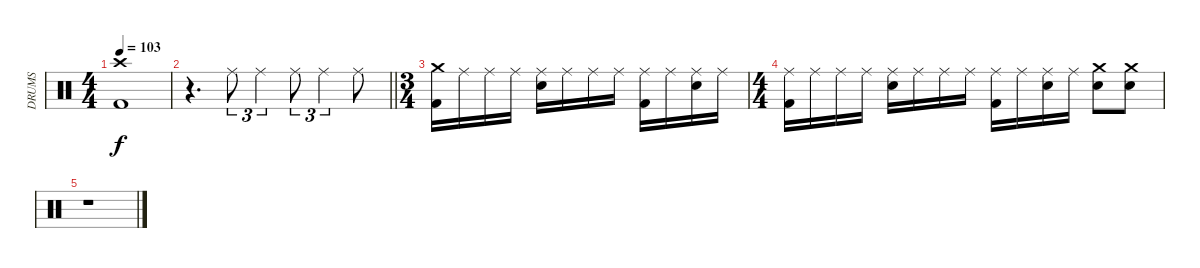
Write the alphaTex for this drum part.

\track ("DRUMS" "DRUMS") {instrument percussion}
\staff {score}
\articulation defaults
\ts (4 4)
\tempo 103
\clef neutral
\ks c
("Crash high (hit)" "Kick (hit) 2").1{dy f} |
\barLineRight lightlight
r.4{d} "Ride (middle)".8{tu (3 2)} "Ride (middle)".4{tu (3 2)} "Ride (middle)".8{tu (3 2)} "Ride (middle)".4{tu (3 2)} "Ride (middle)".8 |
\ts (3 4)
("Crash medium (hit)" "Kick (hit) 2").16 "Ride (middle)".16 "Ride (middle)".16 "Ride (middle)".16 ("Ride (middle)" "Snare (hit) 2").16 "Ride (middle)".16 "Ride (middle)".16 "Ride (middle)".16 ("Ride (middle)" "Kick (hit) 2").16 "Ride (middle)".16 ("Ride (middle)" "Snare (hit) 2").16 "Ride (middle)".16 |
\ts (4 4)
("Ride (middle)" "Kick (hit) 2").16 "Ride (middle)".16 "Ride (middle)".16 "Ride (middle)".16 ("Ride (middle)" "Snare (hit) 2").16 "Ride (middle)".16 "Ride (middle)".16 "Ride (middle)".16 ("Ride (middle)" "Kick (hit) 2").16 "Ride (middle)".16 ("Ride (middle)" "Snare (hit) 2").16 "Ride (middle)".16 ("Crash medium (hit)" "Snare (hit) 2").8 ("Crash medium (hit)" "Snare (hit) 2").8 |
r.1
